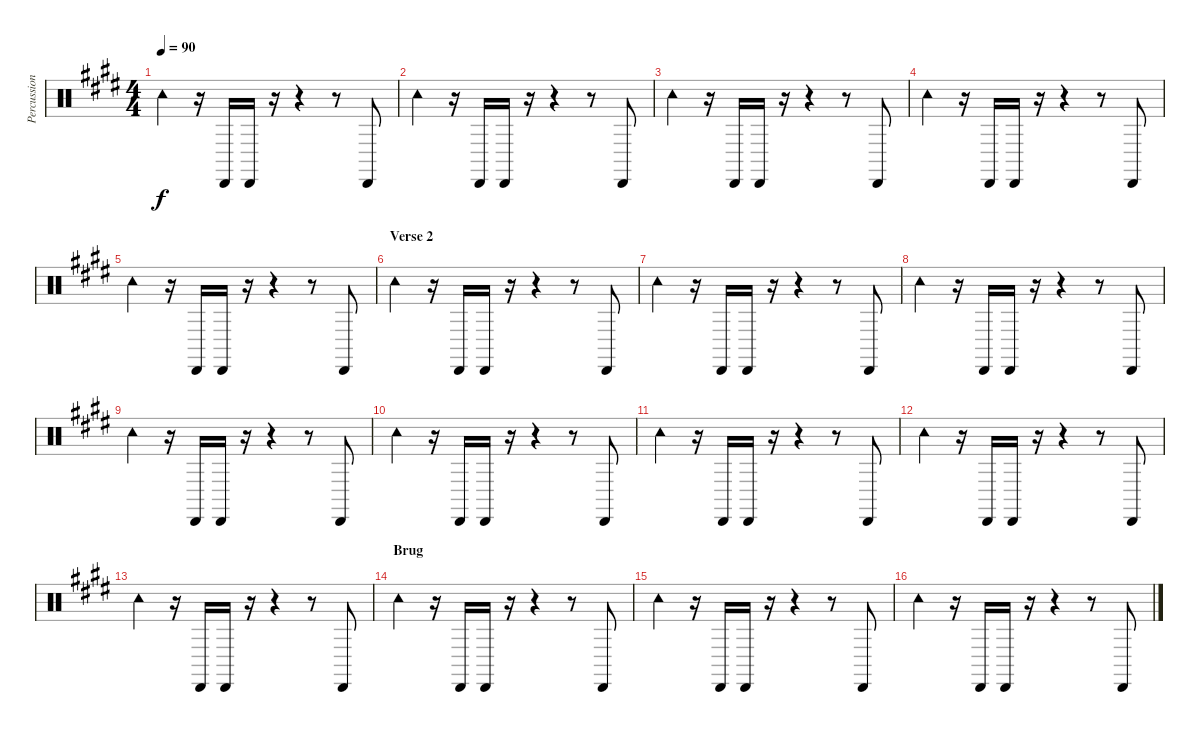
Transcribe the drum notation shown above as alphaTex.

\track ("Percussion" "Percussion") {instrument percussion}
\staff {score}
\articulation defaults
\ts (4 4)
\tempo 90
\clef neutral
\ks e "Tambourine (hit)".4{dy f}
r.16 "Cabasa (hit)".16 "Cabasa (hit)".16 r.16 r.4 r.8 "Cabasa (hit)".8 |
"Tambourine (hit)".4 r.16 "Cabasa (hit)".16 "Cabasa (hit)".16 r.16 r.4 r.8 "Cabasa (hit)".8 |
"Tambourine (hit)".4 r.16 "Cabasa (hit)".16 "Cabasa (hit)".16 r.16 r.4 r.8 "Cabasa (hit)".8 |
"Tambourine (hit)".4 r.16 "Cabasa (hit)".16 "Cabasa (hit)".16 r.16 r.4 r.8 "Cabasa (hit)".8 |
"Tambourine (hit)".4 r.16 "Cabasa (hit)".16 "Cabasa (hit)".16 r.16 r.4 r.8 "Cabasa (hit)".8 |
\section ("" "Verse 2")
"Tambourine (hit)".4 r.16 "Cabasa (hit)".16 "Cabasa (hit)".16 r.16 r.4 r.8 "Cabasa (hit)".8 |
"Tambourine (hit)".4 r.16 "Cabasa (hit)".16 "Cabasa (hit)".16 r.16 r.4 r.8 "Cabasa (hit)".8 |
"Tambourine (hit)".4 r.16 "Cabasa (hit)".16 "Cabasa (hit)".16 r.16 r.4 r.8 "Cabasa (hit)".8 |
"Tambourine (hit)".4 r.16 "Cabasa (hit)".16 "Cabasa (hit)".16 r.16 r.4 r.8 "Cabasa (hit)".8 |
"Tambourine (hit)".4 r.16 "Cabasa (hit)".16 "Cabasa (hit)".16 r.16 r.4 r.8 "Cabasa (hit)".8 |
"Tambourine (hit)".4 r.16 "Cabasa (hit)".16 "Cabasa (hit)".16 r.16 r.4 r.8 "Cabasa (hit)".8 |
"Tambourine (hit)".4 r.16 "Cabasa (hit)".16 "Cabasa (hit)".16 r.16 r.4 r.8 "Cabasa (hit)".8 |
"Tambourine (hit)".4 r.16 "Cabasa (hit)".16 "Cabasa (hit)".16 r.16 r.4 r.8 "Cabasa (hit)".8 |
\section ("" "Brug")
"Tambourine (hit)".4 r.16 "Cabasa (hit)".16 "Cabasa (hit)".16 r.16 r.4 r.8 "Cabasa (hit)".8 |
"Tambourine (hit)".4 r.16 "Cabasa (hit)".16 "Cabasa (hit)".16 r.16 r.4 r.8 "Cabasa (hit)".8 |
"Tambourine (hit)".4 r.16 "Cabasa (hit)".16 "Cabasa (hit)".16 r.16 r.4 r.8 "Cabasa (hit)".8
